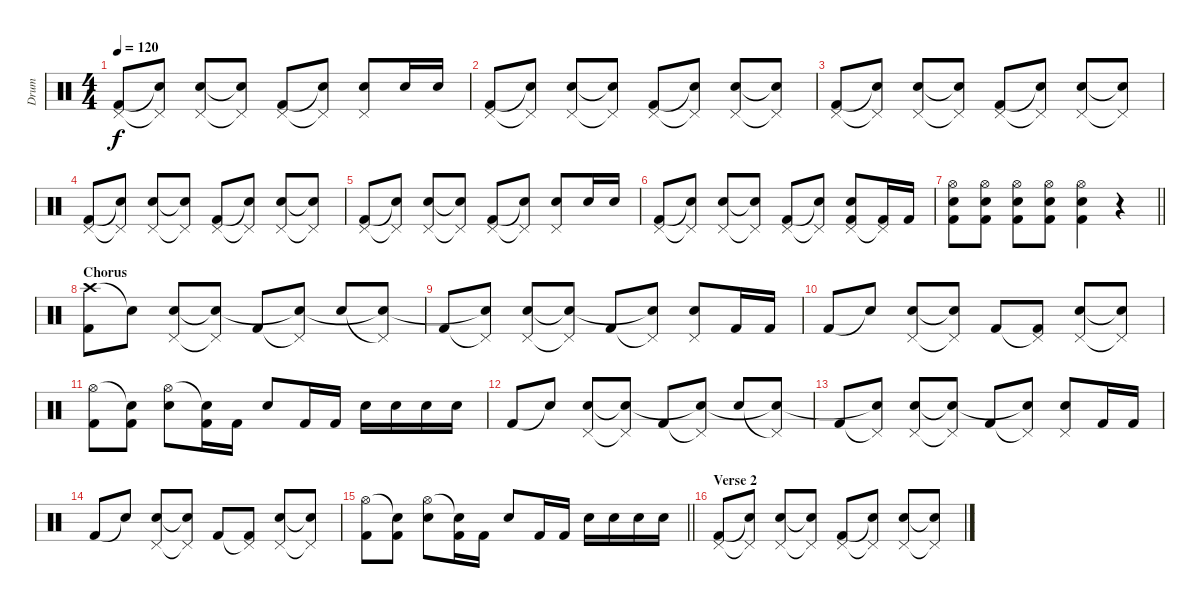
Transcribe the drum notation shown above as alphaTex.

\track ("Drum" "Drum") {instrument percussion}
\staff {score}
\articulation defaults
\ts (4 4)
\tempo 120
\clef neutral
\ks c
("Pedal Hi-Hat (hit)" "Kick (hit) 2").8{dy f volume 11} ("Pedal Hi-Hat (hit)"{t} "Snare (hit)"{t}).8 ("Pedal Hi-Hat (hit)" "Electric Snare (hit)").8 ("Pedal Hi-Hat (hit)"{t} "Snare (hit)"{t}).8 ("Pedal Hi-Hat (hit)" "Kick (hit) 2").8 ("Pedal Hi-Hat (hit)"{t} "Snare (hit)"{t}).8 ("Pedal Hi-Hat (hit)" "Electric Snare (hit)").8 "Electric Snare (hit)".16 "Electric Snare (hit)".16 |
("Pedal Hi-Hat (hit)" "Kick (hit) 2").8{volume 11} ("Pedal Hi-Hat (hit)"{t} "Snare (hit)"{t}).8 ("Pedal Hi-Hat (hit)" "Electric Snare (hit)").8 ("Pedal Hi-Hat (hit)"{t} "Snare (hit)"{t}).8 ("Pedal Hi-Hat (hit)" "Kick (hit) 2").8 ("Pedal Hi-Hat (hit)"{t} "Snare (hit)"{t}).8 ("Pedal Hi-Hat (hit)" "Electric Snare (hit)").8 ("Pedal Hi-Hat (hit)"{t} "Snare (hit)"{t}).8 |
("Pedal Hi-Hat (hit)" "Kick (hit) 2").8{volume 11} ("Pedal Hi-Hat (hit)"{t} "Snare (hit)"{t}).8 ("Pedal Hi-Hat (hit)" "Electric Snare (hit)").8 ("Pedal Hi-Hat (hit)"{t} "Snare (hit)"{t}).8 ("Pedal Hi-Hat (hit)" "Kick (hit) 2").8 ("Pedal Hi-Hat (hit)"{t} "Snare (hit)"{t}).8 ("Pedal Hi-Hat (hit)" "Electric Snare (hit)").8 ("Pedal Hi-Hat (hit)"{t} "Snare (hit)"{t}).8 |
("Pedal Hi-Hat (hit)" "Kick (hit) 2").8{volume 11} ("Pedal Hi-Hat (hit)"{t} "Snare (hit)"{t}).8 ("Pedal Hi-Hat (hit)" "Electric Snare (hit)").8 ("Pedal Hi-Hat (hit)"{t} "Snare (hit)"{t}).8 ("Pedal Hi-Hat (hit)" "Kick (hit) 2").8 ("Pedal Hi-Hat (hit)"{t} "Snare (hit)"{t}).8 ("Pedal Hi-Hat (hit)" "Electric Snare (hit)").8 ("Pedal Hi-Hat (hit)"{t} "Snare (hit)"{t}).8 |
("Pedal Hi-Hat (hit)" "Kick (hit) 2").8{volume 11} ("Pedal Hi-Hat (hit)"{t} "Snare (hit)"{t}).8 ("Pedal Hi-Hat (hit)" "Electric Snare (hit)").8 ("Pedal Hi-Hat (hit)"{t} "Snare (hit)"{t}).8 ("Pedal Hi-Hat (hit)" "Kick (hit) 2").8 ("Pedal Hi-Hat (hit)"{t} "Snare (hit)"{t}).8 ("Pedal Hi-Hat (hit)" "Electric Snare (hit)").8 "Electric Snare (hit)".16 "Electric Snare (hit)".16 |
("Pedal Hi-Hat (hit)" "Kick (hit) 2").8{volume 11} ("Pedal Hi-Hat (hit)"{t} "Snare (hit)"{t}).8 ("Pedal Hi-Hat (hit)" "Electric Snare (hit)").8 ("Pedal Hi-Hat (hit)"{t} "Snare (hit)"{t}).8 ("Pedal Hi-Hat (hit)" "Kick (hit) 2").8 ("Pedal Hi-Hat (hit)"{t} "Snare (hit)"{t}).8 ("Pedal Hi-Hat (hit)" "Electric Snare (hit)" "Kick (hit) 2").8 ("Pedal Hi-Hat (hit)"{t} "Kick (hit) 2").16 "Kick (hit) 2".16 |
\barLineRight lightlight
("Hi-Hat (open)" "Electric Snare (hit)" "Kick (hit) 2").8 ("Hi-Hat (open)" "Electric Snare (hit)" "Kick (hit) 2").8 ("Hi-Hat (open)" "Electric Snare (hit)" "Kick (hit) 2").8 ("Hi-Hat (open)" "Electric Snare (hit)" "Kick (hit) 2").8 ("Hi-Hat (open)" "Electric Snare (hit)" "Kick (hit) 2").4 r.4 |
\section ("" "Chorus")
("Crash high (hit)" "Kick (hit) 2").8{volume 11} "Snare (hit)"{t}.8 ("Pedal Hi-Hat (hit)" "Electric Snare (hit)").8 ("Pedal Hi-Hat (hit)"{t} "Snare (hit)"{t}).8 "Kick (hit) 2".8 ("Pedal Hi-Hat (hit)"{t} "Snare (hit)"{t}).8 "Electric Snare (hit)".8 ("Pedal Hi-Hat (hit)"{t} "Snare (hit)"{t}).8 |
"Kick (hit) 2".8{volume 11} ("Pedal Hi-Hat (hit)"{t} "Snare (hit)"{t}).8 ("Pedal Hi-Hat (hit)" "Electric Snare (hit)").8 ("Pedal Hi-Hat (hit)"{t} "Snare (hit)"{t}).8 "Kick (hit) 2".8 ("Pedal Hi-Hat (hit)"{t} "Snare (hit)"{t}).8 ("Pedal Hi-Hat (hit)" "Electric Snare (hit)").8 "Kick (hit) 2".16 "Kick (hit) 2".16 |
"Kick (hit) 2".8{volume 11} "Snare (hit)"{t}.8 ("Pedal Hi-Hat (hit)" "Electric Snare (hit)").8 ("Pedal Hi-Hat (hit)"{t} "Snare (hit)"{t}).8 "Kick (hit) 2".8 ("Pedal Hi-Hat (hit)"{t} "Kick (hit) 2").8 ("Pedal Hi-Hat (hit)" "Electric Snare (hit)").8 ("Pedal Hi-Hat (hit)"{t} "Snare (hit)"{t}).8 |
("Hi-Hat (open)" "Kick (hit) 2").8 ("Snare (hit)"{t} "Kick (hit) 2").8 ("Hi-Hat (open)" "Electric Snare (hit)").8 ("Snare (hit)"{t} "Kick (hit) 2").16 "Kick (hit) 2".16 "Electric Snare (hit)".8 "Kick (hit) 2".16 "Kick (hit) 2".16 "Electric Snare (hit)".16 "Electric Snare (hit)".16 "Electric Snare (hit)".16 "Electric Snare (hit)".16 |
"Kick (hit) 2".8{volume 11} "Snare (hit)"{t}.8 ("Pedal Hi-Hat (hit)" "Electric Snare (hit)").8 ("Pedal Hi-Hat (hit)"{t} "Snare (hit)"{t}).8 "Kick (hit) 2".8 ("Pedal Hi-Hat (hit)"{t} "Snare (hit)"{t}).8 "Electric Snare (hit)".8 ("Pedal Hi-Hat (hit)"{t} "Snare (hit)"{t}).8 |
"Kick (hit) 2".8{volume 11} ("Pedal Hi-Hat (hit)"{t} "Snare (hit)"{t}).8 ("Pedal Hi-Hat (hit)" "Electric Snare (hit)").8 ("Pedal Hi-Hat (hit)"{t} "Snare (hit)"{t}).8 "Kick (hit) 2".8 ("Pedal Hi-Hat (hit)"{t} "Snare (hit)"{t}).8 ("Pedal Hi-Hat (hit)" "Electric Snare (hit)").8 "Kick (hit) 2".16 "Kick (hit) 2".16 |
"Kick (hit) 2".8{volume 11} "Snare (hit)"{t}.8 ("Pedal Hi-Hat (hit)" "Electric Snare (hit)").8 ("Pedal Hi-Hat (hit)"{t} "Snare (hit)"{t}).8 "Kick (hit) 2".8 ("Pedal Hi-Hat (hit)"{t} "Kick (hit) 2").8 ("Pedal Hi-Hat (hit)" "Electric Snare (hit)").8 ("Pedal Hi-Hat (hit)"{t} "Snare (hit)"{t}).8 |
\barLineRight lightlight
("Hi-Hat (open)" "Kick (hit) 2").8 ("Snare (hit)"{t} "Kick (hit) 2").8 ("Hi-Hat (open)" "Electric Snare (hit)").8 ("Snare (hit)"{t} "Kick (hit) 2").16 "Kick (hit) 2".16 "Electric Snare (hit)".8 "Kick (hit) 2".16 "Kick (hit) 2".16 "Electric Snare (hit)".16 "Electric Snare (hit)".16 "Electric Snare (hit)".16 "Electric Snare (hit)".16 |
\section ("" "Verse 2")
("Pedal Hi-Hat (hit)" "Kick (hit) 2").8{volume 11} ("Pedal Hi-Hat (hit)"{t} "Snare (hit)"{t}).8 ("Pedal Hi-Hat (hit)" "Electric Snare (hit)").8 ("Pedal Hi-Hat (hit)"{t} "Snare (hit)"{t}).8 ("Pedal Hi-Hat (hit)" "Kick (hit) 2").8 ("Pedal Hi-Hat (hit)"{t} "Snare (hit)"{t}).8 ("Pedal Hi-Hat (hit)" "Electric Snare (hit)").8 ("Pedal Hi-Hat (hit)"{t} "Snare (hit)"{t}).8
